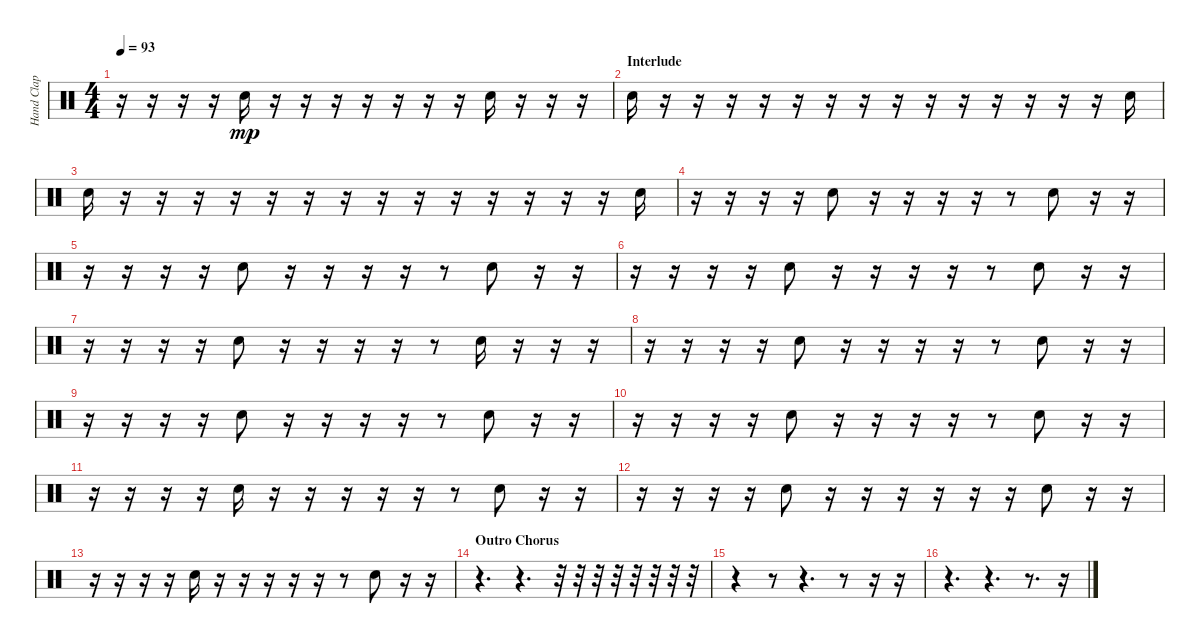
\track ("Hand Clap" "Hand Clap") {instrument percussion}
\staff {score}
\articulation defaults
\ts (4 4)
\tempo 93
\clef neutral
\ks c
r.16{dy mp} r.16 r.16 r.16 "Hand Clap (hit)".16 r.16 r.16 r.16 r.16 r.16 r.16 r.16 "Hand Clap (hit)".16 r.16 r.16 r.16 |
\section ("" "Interlude")
"Hand Clap (hit)".16 r.16 r.16 r.16 r.16 r.16 r.16 r.16 r.16 r.16 r.16 r.16 r.16 r.16 r.16 "Hand Clap (hit)".16 |
"Hand Clap (hit)".16 r.16 r.16 r.16 r.16 r.16 r.16 r.16 r.16 r.16 r.16 r.16 r.16 r.16 r.16 "Hand Clap (hit)".16 |
r.16 r.16 r.16 r.16 "Hand Clap (hit)".8 r.16 r.16 r.16 r.16 r.8 "Hand Clap (hit)".8 r.16 r.16 |
r.16 r.16 r.16 r.16 "Hand Clap (hit)".8 r.16 r.16 r.16 r.16 r.8 "Hand Clap (hit)".8 r.16 r.16 |
r.16 r.16 r.16 r.16 "Hand Clap (hit)".8 r.16 r.16 r.16 r.16 r.8 "Hand Clap (hit)".8 r.16 r.16 |
r.16 r.16 r.16 r.16 "Hand Clap (hit)".8 r.16 r.16 r.16 r.16 r.8 "Hand Clap (hit)".16 r.16 r.16 r.16 |
r.16 r.16 r.16 r.16 "Hand Clap (hit)".8 r.16 r.16 r.16 r.16 r.8 "Hand Clap (hit)".8 r.16 r.16 |
r.16 r.16 r.16 r.16 "Hand Clap (hit)".8 r.16 r.16 r.16 r.16 r.8 "Hand Clap (hit)".8 r.16 r.16 |
r.16 r.16 r.16 r.16 "Hand Clap (hit)".8 r.16 r.16 r.16 r.16 r.8 "Hand Clap (hit)".8 r.16 r.16 |
r.16 r.16 r.16 r.16 "Hand Clap (hit)".16 r.16 r.16 r.16 r.16 r.16 r.8 "Hand Clap (hit)".8 r.16 r.16 |
r.16 r.16 r.16 r.16 "Hand Clap (hit)".8 r.16 r.16 r.16 r.16 r.16 r.16 "Hand Clap (hit)".8 r.16 r.16 |
r.16 r.16 r.16 r.16 "Hand Clap (hit)".16 r.16 r.16 r.16 r.16 r.16 r.8 "Hand Clap (hit)".8 r.16 r.16 |
\section ("" "Outro Chorus")
r.4{d} r.4{d} r.32 r.32 r.32 r.32 r.32 r.32 r.32 r.32 |
r.4 r.8 r.4{d} r.8 r.16 r.16 |
r.4{d} r.4{d} r.8{d} r.16
